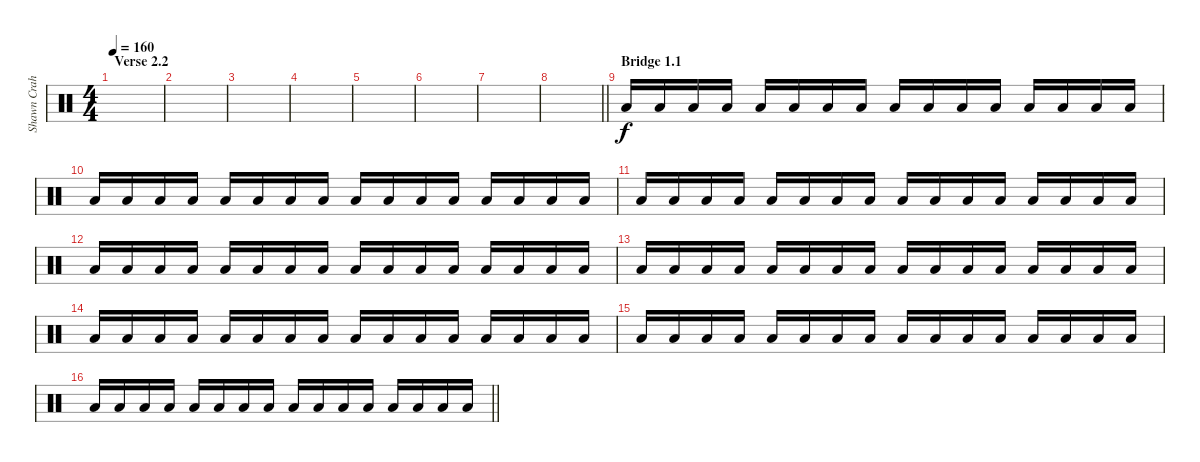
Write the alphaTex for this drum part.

\track ("Shawn Crahan" "Shawn Crah") {instrument percussion}
\staff {score}
\articulation defaults
\ts (4 4)
\section ("" "Verse 2.2")
\tempo 160
\clef neutral
\ks c
|
|
|
|
|
|
|
\barLineRight lightlight
|
\section ("" "Bridge 1.1")
"Low Floor Tom (hit)".16 "Low Floor Tom (hit)".16 "Low Floor Tom (hit)".16 "Low Floor Tom (hit)".16 "Low Floor Tom (hit)".16 "Low Floor Tom (hit)".16 "Low Floor Tom (hit)".16 "Low Floor Tom (hit)".16 "Low Floor Tom (hit)".16 "Low Floor Tom (hit)".16 "Low Floor Tom (hit)".16 "Low Floor Tom (hit)".16 "Low Floor Tom (hit)".16 "Low Floor Tom (hit)".16 "Low Floor Tom (hit)".16 "Low Floor Tom (hit)".16 |
"Low Floor Tom (hit)".16 "Low Floor Tom (hit)".16 "Low Floor Tom (hit)".16 "Low Floor Tom (hit)".16 "Low Floor Tom (hit)".16 "Low Floor Tom (hit)".16 "Low Floor Tom (hit)".16 "Low Floor Tom (hit)".16 "Low Floor Tom (hit)".16 "Low Floor Tom (hit)".16 "Low Floor Tom (hit)".16 "Low Floor Tom (hit)".16 "Low Floor Tom (hit)".16 "Low Floor Tom (hit)".16 "Low Floor Tom (hit)".16 "Low Floor Tom (hit)".16 |
"Low Floor Tom (hit)".16 "Low Floor Tom (hit)".16 "Low Floor Tom (hit)".16 "Low Floor Tom (hit)".16 "Low Floor Tom (hit)".16 "Low Floor Tom (hit)".16 "Low Floor Tom (hit)".16 "Low Floor Tom (hit)".16 "Low Floor Tom (hit)".16 "Low Floor Tom (hit)".16 "Low Floor Tom (hit)".16 "Low Floor Tom (hit)".16 "Low Floor Tom (hit)".16 "Low Floor Tom (hit)".16 "Low Floor Tom (hit)".16 "Low Floor Tom (hit)".16 |
"Low Floor Tom (hit)".16 "Low Floor Tom (hit)".16 "Low Floor Tom (hit)".16 "Low Floor Tom (hit)".16 "Low Floor Tom (hit)".16 "Low Floor Tom (hit)".16 "Low Floor Tom (hit)".16 "Low Floor Tom (hit)".16 "Low Floor Tom (hit)".16 "Low Floor Tom (hit)".16 "Low Floor Tom (hit)".16 "Low Floor Tom (hit)".16 "Low Floor Tom (hit)".16 "Low Floor Tom (hit)".16 "Low Floor Tom (hit)".16 "Low Floor Tom (hit)".16 |
"Low Floor Tom (hit)".16 "Low Floor Tom (hit)".16 "Low Floor Tom (hit)".16 "Low Floor Tom (hit)".16 "Low Floor Tom (hit)".16 "Low Floor Tom (hit)".16 "Low Floor Tom (hit)".16 "Low Floor Tom (hit)".16 "Low Floor Tom (hit)".16 "Low Floor Tom (hit)".16 "Low Floor Tom (hit)".16 "Low Floor Tom (hit)".16 "Low Floor Tom (hit)".16 "Low Floor Tom (hit)".16 "Low Floor Tom (hit)".16 "Low Floor Tom (hit)".16 |
"Low Floor Tom (hit)".16 "Low Floor Tom (hit)".16 "Low Floor Tom (hit)".16 "Low Floor Tom (hit)".16 "Low Floor Tom (hit)".16 "Low Floor Tom (hit)".16 "Low Floor Tom (hit)".16 "Low Floor Tom (hit)".16 "Low Floor Tom (hit)".16 "Low Floor Tom (hit)".16 "Low Floor Tom (hit)".16 "Low Floor Tom (hit)".16 "Low Floor Tom (hit)".16 "Low Floor Tom (hit)".16 "Low Floor Tom (hit)".16 "Low Floor Tom (hit)".16 |
"Low Floor Tom (hit)".16 "Low Floor Tom (hit)".16 "Low Floor Tom (hit)".16 "Low Floor Tom (hit)".16 "Low Floor Tom (hit)".16 "Low Floor Tom (hit)".16 "Low Floor Tom (hit)".16 "Low Floor Tom (hit)".16 "Low Floor Tom (hit)".16 "Low Floor Tom (hit)".16 "Low Floor Tom (hit)".16 "Low Floor Tom (hit)".16 "Low Floor Tom (hit)".16 "Low Floor Tom (hit)".16 "Low Floor Tom (hit)".16 "Low Floor Tom (hit)".16 |
\barLineRight lightlight "Low Floor Tom (hit)".16 "Low Floor Tom (hit)".16 "Low Floor Tom (hit)".16 "Low Floor Tom (hit)".16 "Low Floor Tom (hit)".16 "Low Floor Tom (hit)".16 "Low Floor Tom (hit)".16 "Low Floor Tom (hit)".16 "Low Floor Tom (hit)".16 "Low Floor Tom (hit)".16 "Low Floor Tom (hit)".16 "Low Floor Tom (hit)".16 "Low Floor Tom (hit)".16 "Low Floor Tom (hit)".16 "Low Floor Tom (hit)".16 "Low Floor Tom (hit)".16
